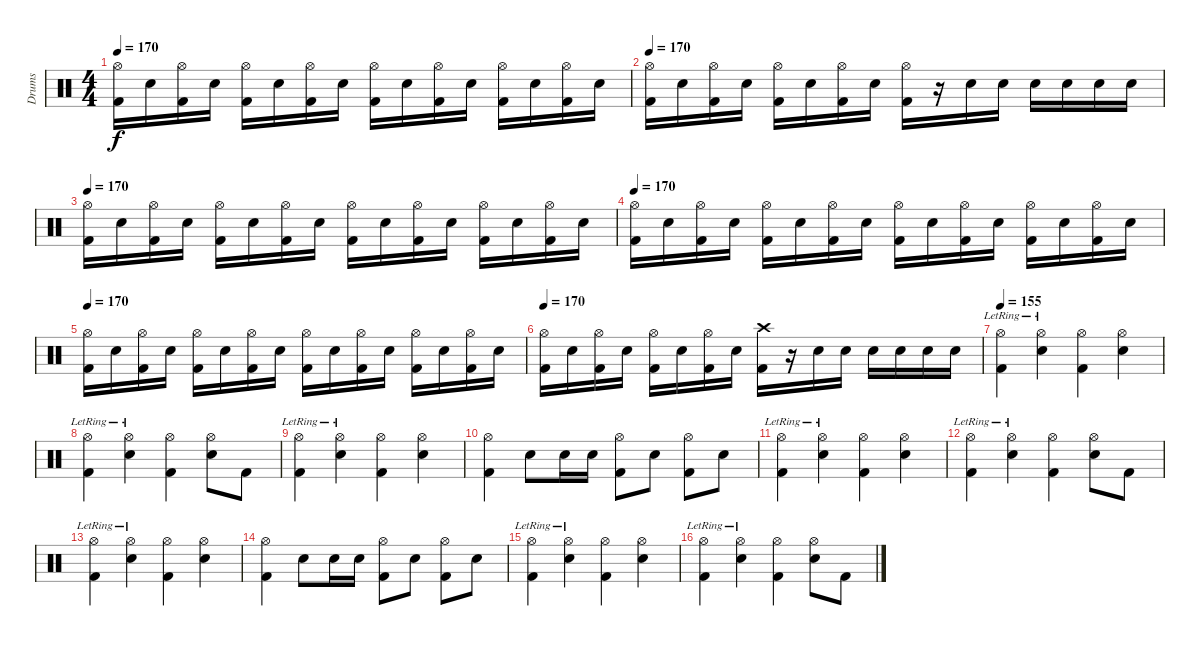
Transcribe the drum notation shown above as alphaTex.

\track ("Drums" "Drums") {instrument percussion}
\staff {score}
\articulation defaults
\ts (4 4)
\tempo 170
\clef neutral
\ks c
("Hi-Hat (open)" "Kick (hit) 2").16{dy f} "Electric Snare (hit)".16 ("Hi-Hat (open)" "Kick (hit) 2").16 "Electric Snare (hit)".16 ("Hi-Hat (open)" "Kick (hit) 2").16 "Electric Snare (hit)".16 ("Hi-Hat (open)" "Kick (hit) 2").16 "Electric Snare (hit)".16 ("Hi-Hat (open)" "Kick (hit) 2").16 "Electric Snare (hit)".16 ("Hi-Hat (open)" "Kick (hit) 2").16 "Electric Snare (hit)".16 ("Hi-Hat (open)" "Kick (hit) 2").16 "Electric Snare (hit)".16 ("Hi-Hat (open)" "Kick (hit) 2").16 "Electric Snare (hit)".16 |
\tempo 170
("Hi-Hat (open)" "Kick (hit) 2").16 "Electric Snare (hit)".16 ("Hi-Hat (open)" "Kick (hit) 2").16 "Electric Snare (hit)".16 ("Hi-Hat (open)" "Kick (hit) 2").16 "Electric Snare (hit)".16 ("Hi-Hat (open)" "Kick (hit) 2").16 "Electric Snare (hit)".16 ("Hi-Hat (open)" "Kick (hit) 2").16 r.16 "Electric Snare (hit)".16 "Electric Snare (hit)".16 "Electric Snare (hit)".16 "Electric Snare (hit)".16 "Electric Snare (hit)".16 "Electric Snare (hit)".16 |
\tempo 170
("Hi-Hat (open)" "Kick (hit) 2").16 "Electric Snare (hit)".16 ("Hi-Hat (open)" "Kick (hit) 2").16 "Electric Snare (hit)".16 ("Hi-Hat (open)" "Kick (hit) 2").16 "Electric Snare (hit)".16 ("Hi-Hat (open)" "Kick (hit) 2").16 "Electric Snare (hit)".16 ("Hi-Hat (open)" "Kick (hit) 2").16 "Electric Snare (hit)".16 ("Hi-Hat (open)" "Kick (hit) 2").16 "Electric Snare (hit)".16 ("Hi-Hat (open)" "Kick (hit) 2").16 "Electric Snare (hit)".16 ("Hi-Hat (open)" "Kick (hit) 2").16 "Electric Snare (hit)".16 |
\tempo 170
("Hi-Hat (open)" "Kick (hit) 2").16 "Electric Snare (hit)".16 ("Hi-Hat (open)" "Kick (hit) 2").16 "Electric Snare (hit)".16 ("Hi-Hat (open)" "Kick (hit) 2").16 "Electric Snare (hit)".16 ("Hi-Hat (open)" "Kick (hit) 2").16 "Electric Snare (hit)".16 ("Hi-Hat (open)" "Kick (hit) 2").16 "Electric Snare (hit)".16 ("Hi-Hat (open)" "Kick (hit) 2").16 "Electric Snare (hit)".16 ("Hi-Hat (open)" "Kick (hit) 2").16 "Electric Snare (hit)".16 ("Hi-Hat (open)" "Kick (hit) 2").16 "Electric Snare (hit)".16 |
\tempo 170
("Hi-Hat (open)" "Kick (hit) 2").16 "Electric Snare (hit)".16 ("Hi-Hat (open)" "Kick (hit) 2").16 "Electric Snare (hit)".16 ("Hi-Hat (open)" "Kick (hit) 2").16 "Electric Snare (hit)".16 ("Hi-Hat (open)" "Kick (hit) 2").16 "Electric Snare (hit)".16 ("Hi-Hat (open)" "Kick (hit) 2").16 "Electric Snare (hit)".16 ("Hi-Hat (open)" "Kick (hit) 2").16 "Electric Snare (hit)".16 ("Hi-Hat (open)" "Kick (hit) 2").16 "Electric Snare (hit)".16 ("Hi-Hat (open)" "Kick (hit) 2").16 "Electric Snare (hit)".16 |
\tempo 170
("Hi-Hat (open)" "Kick (hit) 2").16 "Electric Snare (hit)".16 ("Hi-Hat (open)" "Kick (hit) 2").16 "Electric Snare (hit)".16 ("Hi-Hat (open)" "Kick (hit) 2").16 "Electric Snare (hit)".16 ("Hi-Hat (open)" "Kick (hit) 2").16 "Electric Snare (hit)".16 ("Crash high (hit)" "Kick (hit) 2").16 r.16 "Electric Snare (hit)".16 "Electric Snare (hit)".16 "Electric Snare (hit)".16 "Electric Snare (hit)".16 "Electric Snare (hit)".16 "Electric Snare (hit)".16 |
\tempo 155
("Hi-Hat (open)"{lr} "Kick (hit) 2").4 ("Hi-Hat (open)"{lr} "Electric Snare (hit)").4 ("Hi-Hat (open)" "Kick (hit) 2").4 ("Hi-Hat (open)" "Electric Snare (hit)").4 |
("Hi-Hat (open)"{lr} "Kick (hit) 2").4 ("Hi-Hat (open)"{lr} "Electric Snare (hit)").4 ("Hi-Hat (open)" "Kick (hit) 2").4 ("Hi-Hat (open)" "Electric Snare (hit)").8 "Kick (hit) 2".8 |
("Hi-Hat (open)"{lr} "Kick (hit) 2").4 ("Hi-Hat (open)"{lr} "Electric Snare (hit)").4 ("Hi-Hat (open)" "Kick (hit) 2").4 ("Hi-Hat (open)" "Electric Snare (hit)").4 |
("Hi-Hat (open)" "Kick (hit) 2").4 "Electric Snare (hit)".8 "Electric Snare (hit)".16 "Electric Snare (hit)".16 ("Hi-Hat (open)" "Kick (hit) 2").8 "Electric Snare (hit)".8 ("Hi-Hat (open)" "Kick (hit) 2").8 "Electric Snare (hit)".8 |
("Hi-Hat (open)"{lr} "Kick (hit) 2").4 ("Hi-Hat (open)"{lr} "Electric Snare (hit)").4 ("Hi-Hat (open)" "Kick (hit) 2").4 ("Hi-Hat (open)" "Electric Snare (hit)").4 |
("Hi-Hat (open)"{lr} "Kick (hit) 2").4 ("Hi-Hat (open)"{lr} "Electric Snare (hit)").4 ("Hi-Hat (open)" "Kick (hit) 2").4 ("Hi-Hat (open)" "Electric Snare (hit)").8 "Kick (hit) 2".8 |
("Hi-Hat (open)"{lr} "Kick (hit) 2").4 ("Hi-Hat (open)"{lr} "Electric Snare (hit)").4 ("Hi-Hat (open)" "Kick (hit) 2").4 ("Hi-Hat (open)" "Electric Snare (hit)").4 |
("Hi-Hat (open)" "Kick (hit) 2").4 "Electric Snare (hit)".8 "Electric Snare (hit)".16 "Electric Snare (hit)".16 ("Hi-Hat (open)" "Kick (hit) 2").8 "Electric Snare (hit)".8 ("Hi-Hat (open)" "Kick (hit) 2").8 "Electric Snare (hit)".8 |
("Hi-Hat (open)"{lr} "Kick (hit) 2").4 ("Hi-Hat (open)"{lr} "Electric Snare (hit)").4 ("Hi-Hat (open)" "Kick (hit) 2").4 ("Hi-Hat (open)" "Electric Snare (hit)").4 |
("Hi-Hat (open)"{lr} "Kick (hit) 2").4 ("Hi-Hat (open)"{lr} "Electric Snare (hit)").4 ("Hi-Hat (open)" "Kick (hit) 2").4 ("Hi-Hat (open)" "Electric Snare (hit)").8 "Kick (hit) 2".8
